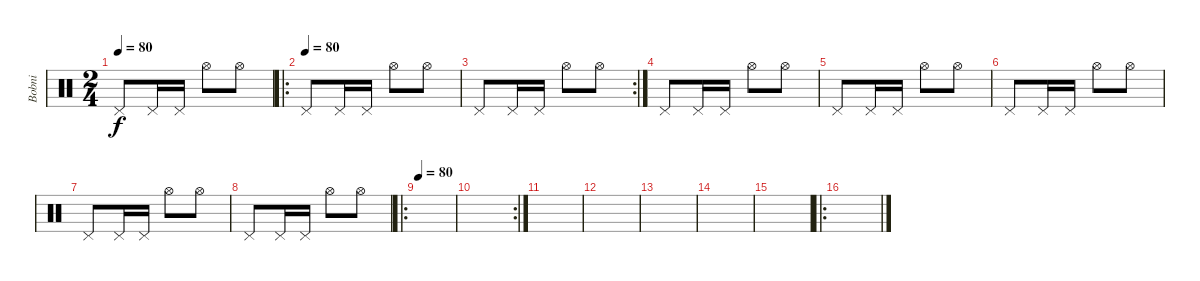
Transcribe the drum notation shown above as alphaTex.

\track ("Bobni" "Bobni") {instrument percussion}
\staff {score}
\articulation defaults
\ts (2 4)
\tempo 80
\clef neutral
\ks c "Pedal Hi-Hat (hit)".8{dy f} "Pedal Hi-Hat (hit)".16 "Pedal Hi-Hat (hit)".16 "Hi-Hat (open)".8 "Hi-Hat (open)".8
|
\ro
\tempo (80)
"Pedal Hi-Hat (hit)".8 "Pedal Hi-Hat (hit)".16 "Pedal Hi-Hat (hit)".16 "Hi-Hat (open)".8 "Hi-Hat (open)".8 |
\rc 2 "Pedal Hi-Hat (hit)".8 "Pedal Hi-Hat (hit)".16 "Pedal Hi-Hat (hit)".16 "Hi-Hat (open)".8 "Hi-Hat (open)".8
|
"Pedal Hi-Hat (hit)".8 "Pedal Hi-Hat (hit)".16 "Pedal Hi-Hat (hit)".16 "Hi-Hat (open)".8 "Hi-Hat (open)".8 |
"Pedal Hi-Hat (hit)".8 "Pedal Hi-Hat (hit)".16 "Pedal Hi-Hat (hit)".16 "Hi-Hat (open)".8 "Hi-Hat (open)".8 |
"Pedal Hi-Hat (hit)".8 "Pedal Hi-Hat (hit)".16 "Pedal Hi-Hat (hit)".16 "Hi-Hat (open)".8 "Hi-Hat (open)".8 |
"Pedal Hi-Hat (hit)".8 "Pedal Hi-Hat (hit)".16 "Pedal Hi-Hat (hit)".16 "Hi-Hat (open)".8 "Hi-Hat (open)".8 |
"Pedal Hi-Hat (hit)".8 "Pedal Hi-Hat (hit)".16 "Pedal Hi-Hat (hit)".16 "Hi-Hat (open)".8 "Hi-Hat (open)".8 |
\ro
\tempo 80
|
\rc 2
|
|
|
|
|
|
\ro
